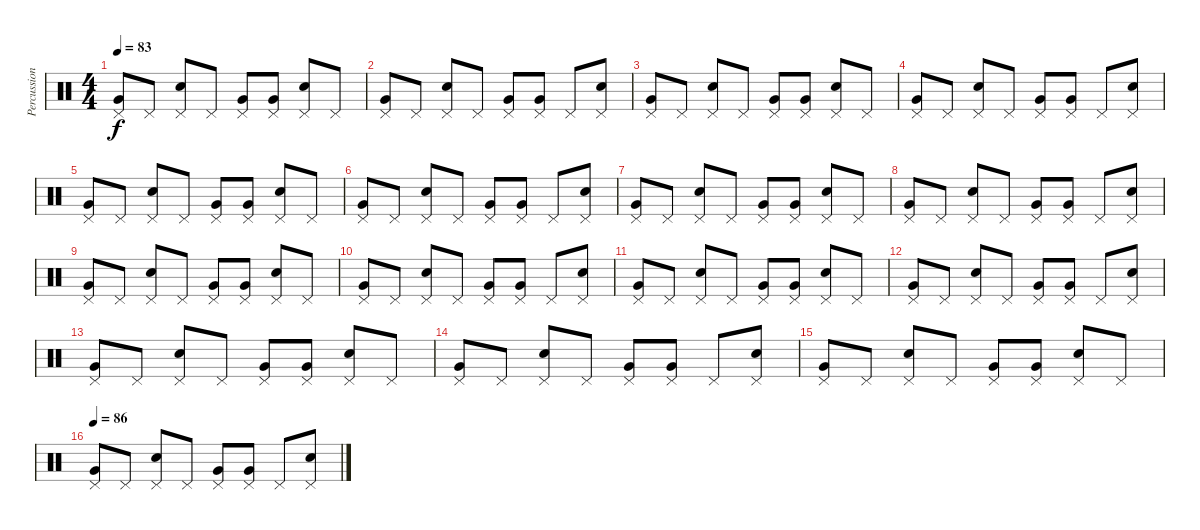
\track ("Percussion" "Percussion") {instrument percussion}
\staff {score}
\articulation defaults
\ts (4 4)
\tempo 83
\clef neutral
\ks c
("Pedal Hi-Hat (hit)" "Very Low Tom (hit)").8{dy f} "Pedal Hi-Hat (hit)".8 ("Pedal Hi-Hat (hit)" "Snare (hit) 2").8 "Pedal Hi-Hat (hit)".8 ("Pedal Hi-Hat (hit)" "Very Low Tom (hit)").8 ("Pedal Hi-Hat (hit)" "Very Low Tom (hit)").8 ("Pedal Hi-Hat (hit)" "Snare (hit) 2").8 "Pedal Hi-Hat (hit)".8 |
("Pedal Hi-Hat (hit)" "Very Low Tom (hit)").8 "Pedal Hi-Hat (hit)".8 ("Pedal Hi-Hat (hit)" "Snare (hit) 2").8 "Pedal Hi-Hat (hit)".8 ("Pedal Hi-Hat (hit)" "Very Low Tom (hit)").8 ("Pedal Hi-Hat (hit)" "Very Low Tom (hit)").8 "Pedal Hi-Hat (hit)".8 ("Pedal Hi-Hat (hit)" "Snare (hit) 2").8 |
("Pedal Hi-Hat (hit)" "Very Low Tom (hit)").8 "Pedal Hi-Hat (hit)".8 ("Pedal Hi-Hat (hit)" "Snare (hit) 2").8 "Pedal Hi-Hat (hit)".8 ("Pedal Hi-Hat (hit)" "Very Low Tom (hit)").8 ("Pedal Hi-Hat (hit)" "Very Low Tom (hit)").8 ("Pedal Hi-Hat (hit)" "Snare (hit) 2").8 "Pedal Hi-Hat (hit)".8 |
("Pedal Hi-Hat (hit)" "Very Low Tom (hit)").8 "Pedal Hi-Hat (hit)".8 ("Pedal Hi-Hat (hit)" "Snare (hit) 2").8 "Pedal Hi-Hat (hit)".8 ("Pedal Hi-Hat (hit)" "Very Low Tom (hit)").8 ("Pedal Hi-Hat (hit)" "Very Low Tom (hit)").8 "Pedal Hi-Hat (hit)".8 ("Pedal Hi-Hat (hit)" "Snare (hit) 2").8 |
("Pedal Hi-Hat (hit)" "Very Low Tom (hit)").8 "Pedal Hi-Hat (hit)".8 ("Pedal Hi-Hat (hit)" "Snare (hit) 2").8 "Pedal Hi-Hat (hit)".8 ("Pedal Hi-Hat (hit)" "Very Low Tom (hit)").8 ("Pedal Hi-Hat (hit)" "Very Low Tom (hit)").8 ("Pedal Hi-Hat (hit)" "Snare (hit) 2").8 "Pedal Hi-Hat (hit)".8 |
("Pedal Hi-Hat (hit)" "Very Low Tom (hit)").8 "Pedal Hi-Hat (hit)".8 ("Pedal Hi-Hat (hit)" "Snare (hit) 2").8 "Pedal Hi-Hat (hit)".8 ("Pedal Hi-Hat (hit)" "Very Low Tom (hit)").8 ("Pedal Hi-Hat (hit)" "Very Low Tom (hit)").8 "Pedal Hi-Hat (hit)".8 ("Pedal Hi-Hat (hit)" "Snare (hit) 2").8 |
("Pedal Hi-Hat (hit)" "Very Low Tom (hit)").8 "Pedal Hi-Hat (hit)".8 ("Pedal Hi-Hat (hit)" "Snare (hit) 2").8 "Pedal Hi-Hat (hit)".8 ("Pedal Hi-Hat (hit)" "Very Low Tom (hit)").8 ("Pedal Hi-Hat (hit)" "Very Low Tom (hit)").8 ("Pedal Hi-Hat (hit)" "Snare (hit) 2").8 "Pedal Hi-Hat (hit)".8 |
("Pedal Hi-Hat (hit)" "Very Low Tom (hit)").8 "Pedal Hi-Hat (hit)".8 ("Pedal Hi-Hat (hit)" "Snare (hit) 2").8 "Pedal Hi-Hat (hit)".8 ("Pedal Hi-Hat (hit)" "Very Low Tom (hit)").8 ("Pedal Hi-Hat (hit)" "Very Low Tom (hit)").8 "Pedal Hi-Hat (hit)".8 ("Pedal Hi-Hat (hit)" "Snare (hit) 2").8 |
("Pedal Hi-Hat (hit)" "Very Low Tom (hit)").8 "Pedal Hi-Hat (hit)".8 ("Pedal Hi-Hat (hit)" "Snare (hit) 2").8 "Pedal Hi-Hat (hit)".8 ("Pedal Hi-Hat (hit)" "Very Low Tom (hit)").8 ("Pedal Hi-Hat (hit)" "Very Low Tom (hit)").8 ("Pedal Hi-Hat (hit)" "Snare (hit) 2").8 "Pedal Hi-Hat (hit)".8 |
("Pedal Hi-Hat (hit)" "Very Low Tom (hit)").8 "Pedal Hi-Hat (hit)".8 ("Pedal Hi-Hat (hit)" "Snare (hit) 2").8 "Pedal Hi-Hat (hit)".8 ("Pedal Hi-Hat (hit)" "Very Low Tom (hit)").8 ("Pedal Hi-Hat (hit)" "Very Low Tom (hit)").8 "Pedal Hi-Hat (hit)".8 ("Pedal Hi-Hat (hit)" "Snare (hit) 2").8 |
("Pedal Hi-Hat (hit)" "Very Low Tom (hit)").8 "Pedal Hi-Hat (hit)".8 ("Pedal Hi-Hat (hit)" "Snare (hit) 2").8 "Pedal Hi-Hat (hit)".8 ("Pedal Hi-Hat (hit)" "Very Low Tom (hit)").8 ("Pedal Hi-Hat (hit)" "Very Low Tom (hit)").8 ("Pedal Hi-Hat (hit)" "Snare (hit) 2").8 "Pedal Hi-Hat (hit)".8 |
("Pedal Hi-Hat (hit)" "Very Low Tom (hit)").8 "Pedal Hi-Hat (hit)".8 ("Pedal Hi-Hat (hit)" "Snare (hit) 2").8 "Pedal Hi-Hat (hit)".8 ("Pedal Hi-Hat (hit)" "Very Low Tom (hit)").8 ("Pedal Hi-Hat (hit)" "Very Low Tom (hit)").8 "Pedal Hi-Hat (hit)".8 ("Pedal Hi-Hat (hit)" "Snare (hit) 2").8 |
("Pedal Hi-Hat (hit)" "Very Low Tom (hit)").8 "Pedal Hi-Hat (hit)".8 ("Pedal Hi-Hat (hit)" "Snare (hit) 2").8 "Pedal Hi-Hat (hit)".8 ("Pedal Hi-Hat (hit)" "Very Low Tom (hit)").8 ("Pedal Hi-Hat (hit)" "Very Low Tom (hit)").8 ("Pedal Hi-Hat (hit)" "Snare (hit) 2").8 "Pedal Hi-Hat (hit)".8 |
("Pedal Hi-Hat (hit)" "Very Low Tom (hit)").8 "Pedal Hi-Hat (hit)".8 ("Pedal Hi-Hat (hit)" "Snare (hit) 2").8 "Pedal Hi-Hat (hit)".8 ("Pedal Hi-Hat (hit)" "Very Low Tom (hit)").8 ("Pedal Hi-Hat (hit)" "Very Low Tom (hit)").8 "Pedal Hi-Hat (hit)".8 ("Pedal Hi-Hat (hit)" "Snare (hit) 2").8 |
("Pedal Hi-Hat (hit)" "Very Low Tom (hit)").8 "Pedal Hi-Hat (hit)".8 ("Pedal Hi-Hat (hit)" "Snare (hit) 2").8 "Pedal Hi-Hat (hit)".8 ("Pedal Hi-Hat (hit)" "Very Low Tom (hit)").8 ("Pedal Hi-Hat (hit)" "Very Low Tom (hit)").8 ("Pedal Hi-Hat (hit)" "Snare (hit) 2").8 "Pedal Hi-Hat (hit)".8 |
\tempo 86
("Pedal Hi-Hat (hit)" "Very Low Tom (hit)").8 "Pedal Hi-Hat (hit)".8 ("Pedal Hi-Hat (hit)" "Snare (hit) 2").8 "Pedal Hi-Hat (hit)".8 ("Pedal Hi-Hat (hit)" "Very Low Tom (hit)").8 ("Pedal Hi-Hat (hit)" "Very Low Tom (hit)").8 "Pedal Hi-Hat (hit)".8 ("Pedal Hi-Hat (hit)" "Snare (hit) 2").8
